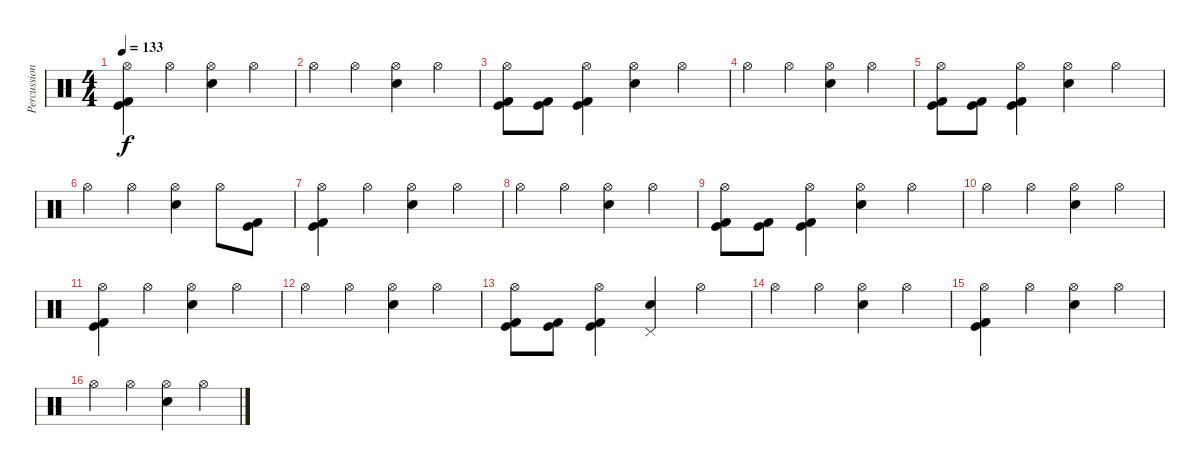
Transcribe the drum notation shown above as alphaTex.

\track ("Percussion" "Percussion") {instrument percussion}
\staff {score}
\articulation defaults
\ts (4 4)
\tempo 133
\clef neutral
\ks c
("Hi-Hat (open)" "Kick (hit)" "Kick (hit) 2").4{dy f} "Hi-Hat (open)".4 ("Hi-Hat (open)" "Electric Snare (hit)").4 "Hi-Hat (open)".4 |
"Hi-Hat (open)".4 "Hi-Hat (open)".4 ("Hi-Hat (open)" "Electric Snare (hit)").4 "Hi-Hat (open)".4 |
("Hi-Hat (open)" "Kick (hit)" "Kick (hit) 2").8 ("Kick (hit)" "Kick (hit) 2").8 ("Hi-Hat (open)" "Kick (hit)" "Kick (hit) 2").4 ("Hi-Hat (open)" "Electric Snare (hit)").4 "Hi-Hat (open)".4 |
"Hi-Hat (open)".4 "Hi-Hat (open)".4 ("Hi-Hat (open)" "Electric Snare (hit)").4 "Hi-Hat (open)".4 |
("Hi-Hat (open)" "Kick (hit)" "Kick (hit) 2").8 ("Kick (hit)" "Kick (hit) 2").8 ("Hi-Hat (open)" "Kick (hit)" "Kick (hit) 2").4 ("Hi-Hat (open)" "Electric Snare (hit)").4 "Hi-Hat (open)".4 |
"Hi-Hat (open)".4 "Hi-Hat (open)".4 ("Hi-Hat (open)" "Electric Snare (hit)").4 "Hi-Hat (open)".8 ("Kick (hit)" "Kick (hit) 2").8 |
("Hi-Hat (open)" "Kick (hit)" "Kick (hit) 2").4 "Hi-Hat (open)".4 ("Hi-Hat (open)" "Electric Snare (hit)").4 "Hi-Hat (open)".4 |
"Hi-Hat (open)".4 "Hi-Hat (open)".4 ("Hi-Hat (open)" "Electric Snare (hit)").4 "Hi-Hat (open)".4 |
("Hi-Hat (open)" "Kick (hit)" "Kick (hit) 2").8 ("Kick (hit)" "Kick (hit) 2").8 ("Hi-Hat (open)" "Kick (hit)" "Kick (hit) 2").4 ("Hi-Hat (open)" "Electric Snare (hit)").4 "Hi-Hat (open)".4 |
"Hi-Hat (open)".4 "Hi-Hat (open)".4 ("Hi-Hat (open)" "Electric Snare (hit)").4 "Hi-Hat (open)".4 |
("Hi-Hat (open)" "Kick (hit)" "Kick (hit) 2").4 "Hi-Hat (open)".4 ("Hi-Hat (open)" "Electric Snare (hit)").4 "Hi-Hat (open)".4 |
"Hi-Hat (open)".4 "Hi-Hat (open)".4 ("Hi-Hat (open)" "Electric Snare (hit)").4 "Hi-Hat (open)".4 |
("Hi-Hat (open)" "Kick (hit)" "Kick (hit) 2").8 ("Kick (hit)" "Kick (hit) 2").8 ("Hi-Hat (open)" "Kick (hit)" "Kick (hit) 2").4 ("Pedal Hi-Hat (hit)" "Electric Snare (hit)").4 "Hi-Hat (open)".4 |
"Hi-Hat (open)".4 "Hi-Hat (open)".4 ("Hi-Hat (open)" "Electric Snare (hit)").4 "Hi-Hat (open)".4 |
("Hi-Hat (open)" "Kick (hit)" "Kick (hit) 2").4 "Hi-Hat (open)".4 ("Hi-Hat (open)" "Electric Snare (hit)").4 "Hi-Hat (open)".4 |
"Hi-Hat (open)".4 "Hi-Hat (open)".4 ("Hi-Hat (open)" "Electric Snare (hit)").4 "Hi-Hat (open)".4
